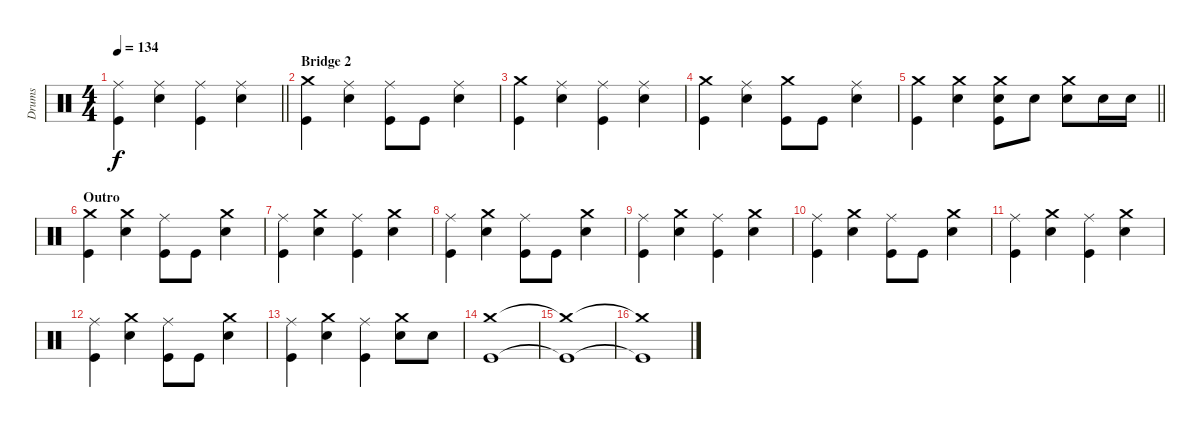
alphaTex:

\track ("Drums" "Drums") {instrument percussion}
\staff {score}
\articulation defaults
\ts (4 4)
\tempo 134
\clef neutral
\barLineRight lightlight
\ks c
("Ride (middle)" "Kick (hit)").4{dy f} ("Ride (middle)" "Snare (hit) 2").4 ("Ride (middle)" "Kick (hit)").4 ("Ride (middle)" "Snare (hit) 2").4 |
\section ("" "Bridge 2")
("Crash medium (hit)" "Kick (hit)").4 ("Ride (middle)" "Snare (hit) 2").4 ("Ride (middle)" "Kick (hit)").8 "Kick (hit)".8 ("Ride (middle)" "Snare (hit) 2").4 |
("Crash medium (hit)" "Kick (hit)").4 ("Ride (middle)" "Snare (hit) 2").4 ("Ride (middle)" "Kick (hit)").4 ("Ride (middle)" "Snare (hit) 2").4 |
("Crash medium (hit)" "Kick (hit)").4 ("Ride (middle)" "Snare (hit) 2").4 ("Crash medium (hit)" "Kick (hit)").8 "Kick (hit)".8 ("Ride (middle)" "Snare (hit) 2").4 |
\barLineRight lightlight
("Crash medium (hit)" "Kick (hit)").4 ("Crash medium (hit)" "Snare (hit) 2").4 ("Crash medium (hit)" "Snare (hit) 2" "Kick (hit)").8 "Snare (hit) 2".8 ("Crash medium (hit)" "Snare (hit) 2").8 "Snare (hit) 2".16 "Snare (hit) 2".16 |
\section ("" "Outro")
("Crash medium (hit)" "Kick (hit)").4 ("Crash medium (hit)" "Snare (hit) 2").4 ("Ride (middle)" "Kick (hit)").8 "Kick (hit)".8 ("Crash medium (hit)" "Snare (hit) 2").4 |
("Ride (middle)" "Kick (hit)").4 ("Crash medium (hit)" "Snare (hit) 2").4 ("Ride (middle)" "Kick (hit)").4 ("Crash medium (hit)" "Snare (hit) 2").4 |
("Ride (middle)" "Kick (hit)").4 ("Crash medium (hit)" "Snare (hit) 2").4 ("Ride (middle)" "Kick (hit)").8 "Kick (hit)".8 ("Crash medium (hit)" "Snare (hit) 2").4 |
("Ride (middle)" "Kick (hit)").4 ("Crash medium (hit)" "Snare (hit) 2").4 ("Ride (middle)" "Kick (hit)").4 ("Crash medium (hit)" "Snare (hit) 2").4 |
("Ride (middle)" "Kick (hit)").4 ("Crash medium (hit)" "Snare (hit) 2").4 ("Ride (middle)" "Kick (hit)").8 "Kick (hit)".8 ("Crash medium (hit)" "Snare (hit) 2").4 |
("Ride (middle)" "Kick (hit)").4 ("Crash medium (hit)" "Snare (hit) 2").4 ("Ride (middle)" "Kick (hit)").4 ("Crash medium (hit)" "Snare (hit) 2").4 |
("Ride (middle)" "Kick (hit)").4 ("Crash medium (hit)" "Snare (hit) 2").4 ("Ride (middle)" "Kick (hit)").8 "Kick (hit)".8 ("Crash medium (hit)" "Snare (hit) 2").4 |
("Ride (middle)" "Kick (hit)").4 ("Crash medium (hit)" "Snare (hit) 2").4 ("Ride (middle)" "Kick (hit)").4 ("Crash medium (hit)" "Snare (hit) 2").8 "Snare (hit) 2".8 |
("Crash medium (hit)" "Kick (hit)").1 |
("Crash medium (hit)"{t} "Kick (hit)"{t}).1 |
("Crash medium (hit)"{t} "Kick (hit)"{t}).1
